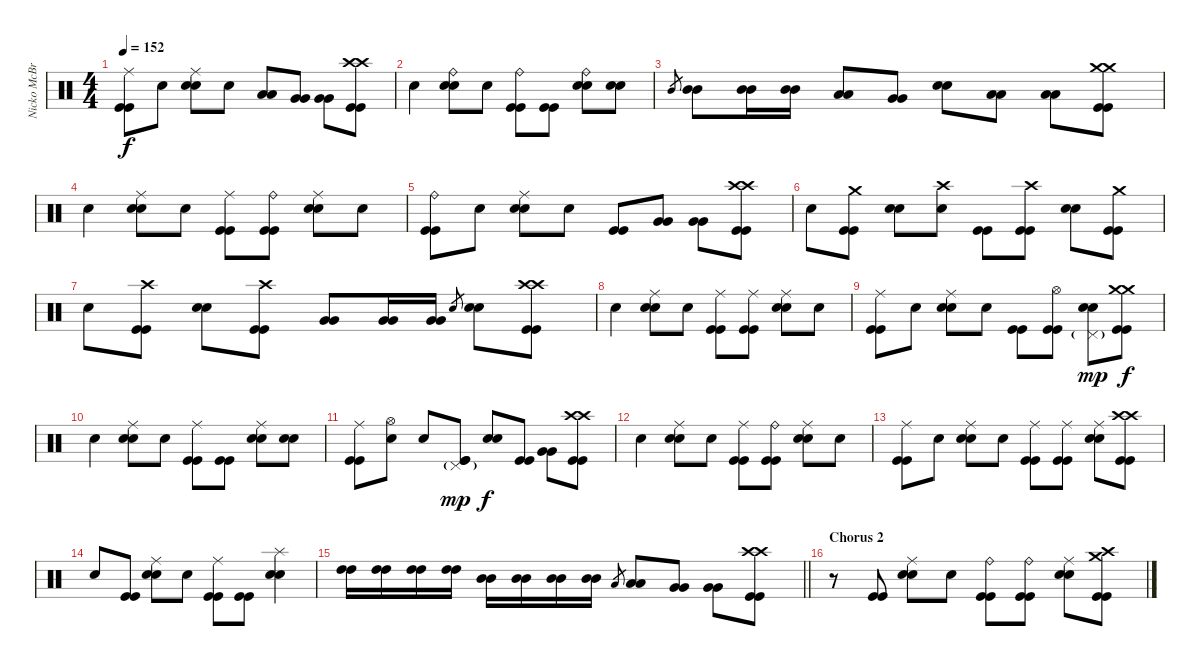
\track ("Nicko McBrain" "Nicko McBr") {instrument percussion}
\staff {score}
\articulation defaults
\ts (4 4)
\tempo 152
\clef neutral
\ks c
("Ride (middle)" "Kick (hit)" "Kick (hit)").8{dy f} "Snare (hit)".8 ("Ride (middle)" "Electric Snare (hit)" "Electric Snare (hit)").8 "Snare (hit)".8 ("Low Tom (hit)" "Low Tom (hit)").8 ("Very Low Tom (hit)" "Very Low Tom (hit)").8 ("Very Low Tom (hit)" "Very Low Tom (hit)").8 ("Crash high (hit)" "Crash high (hit)" "Kick (hit)" "Kick (hit)").8 |
"Snare (hit)".4 ("Ride (bell)" "Electric Snare (hit)" "Electric Snare (hit)").8 "Snare (hit)".8 ("Ride (bell)" "Kick (hit)" "Kick (hit)").8 ("Kick (hit)" "Kick (hit)").8 ("Ride (bell)" "Electric Snare (hit)" "Electric Snare (hit)").8 ("Snare (hit)" "Snare (hit)").8 |
"Mid Tom (hit)".8{gr} ("Mid Tom (hit)" "Mid Tom (hit)").8 ("Mid Tom (hit)" "Mid Tom (hit)").16 ("Mid Tom (hit)" "Mid Tom (hit)").16 ("Low Tom (hit)" "Low Tom (hit)").8 ("Very Low Tom (hit)" "Very Low Tom (hit)").8 ("Electric Snare (hit)" "Electric Snare (hit)").8 ("Low Floor Tom (hit)" "Low Floor Tom (hit)").8 ("Low Floor Tom (hit)" "Low Floor Tom (hit)").8 ("Crash medium (hit)" "Crash medium (hit)" "Kick (hit)" "Kick (hit)").8 |
"Snare (hit)".4 ("Ride (middle)" "Electric Snare (hit)" "Electric Snare (hit)").8 "Snare (hit)".8 ("Ride (middle)" "Kick (hit)" "Kick (hit)").8 ("Ride (bell)" "Kick (hit)" "Kick (hit)").8 ("Ride (middle)" "Electric Snare (hit)" "Electric Snare (hit)").8 "Snare (hit)".8 |
("Ride (bell)" "Kick (hit)" "Kick (hit)").8 "Snare (hit)".8 ("Ride (middle)" "Electric Snare (hit)" "Electric Snare (hit)").8 "Snare (hit)".8 ("Kick (hit)" "Kick (hit)").8 ("Very Low Tom (hit)" "Very Low Tom (hit)").8 ("Very Low Tom (hit)" "Very Low Tom (hit)").8 ("Crash high (hit)" "Crash high (hit)" "Kick (hit)" "Kick (hit)").8 |
"Snare (hit)".8 ("Crash medium (hit)" "Kick (hit)" "Kick (hit)").8 ("Electric Snare (hit)" "Electric Snare (hit)").8 ("Crash high (hit)" "Snare (hit)").8 ("Kick (hit)" "Kick (hit)").8 ("Crash high (hit)" "Kick (hit)" "Kick (hit)").8 ("Electric Snare (hit)" "Electric Snare (hit)").8 ("Crash medium (hit)" "Kick (hit)" "Kick (hit)").8 |
"Snare (hit)".8 ("Crash high (hit)" "Kick (hit)" "Kick (hit)").8 ("Electric Snare (hit)" "Electric Snare (hit)").8 ("Crash high (hit)" "Kick (hit)" "Kick (hit)").8 ("Very Low Tom (hit)" "Very Low Tom (hit)").8 ("Very Low Tom (hit)" "Very Low Tom (hit)").16 ("Very Low Tom (hit)" "Very Low Tom (hit)").16 "Electric Snare (hit)".8{gr} ("Electric Snare (hit)" "Electric Snare (hit)").8 ("Crash high (hit)" "Crash high (hit)" "Kick (hit)" "Kick (hit)").8 |
"Snare (hit)".4 ("Ride (middle)" "Electric Snare (hit)" "Electric Snare (hit)").8 "Snare (hit)".8 ("Ride (middle)" "Kick (hit)" "Kick (hit)").8 ("Ride (middle)" "Kick (hit)" "Kick (hit)").8 ("Ride (middle)" "Electric Snare (hit)" "Electric Snare (hit)").8 "Snare (hit)".8 |
("Ride (middle)" "Kick (hit)" "Kick (hit)").8 "Snare (hit)".8 ("Ride (middle)" "Electric Snare (hit)" "Electric Snare (hit)").8 "Snare (hit)".8 ("Kick (hit)" "Kick (hit)").8 ("Hi-Hat (open)" "Kick (hit)" "Kick (hit)").8 ("Pedal Hi-Hat (hit)"{g} "Electric Snare (hit)" "Electric Snare (hit)").8{dy mp} ("Crash medium (hit)" "Crash medium (hit)" "Kick (hit)" "Kick (hit)").8{dy f} |
"Snare (hit)".4 ("Ride (middle)" "Electric Snare (hit)" "Electric Snare (hit)").8 "Snare (hit)".8 ("Ride (middle)" "Kick (hit)" "Kick (hit)").8 ("Kick (hit)" "Kick (hit)").8 ("Ride (middle)" "Electric Snare (hit)" "Electric Snare (hit)").8 ("Snare (hit)" "Snare (hit)").8 |
("Ride (middle)" "Kick (hit)" "Kick (hit)").8 ("Hi-Hat (open)" "Snare (hit)").8 "Snare (hit)".8 ("Pedal Hi-Hat (hit)"{g} "Kick (hit)" "Kick (hit)").8{dy mp} ("Electric Snare (hit)" "Electric Snare (hit)").8{dy f} ("Kick (hit)" "Kick (hit)").8 ("Very Low Tom (hit)" "Very Low Tom (hit)").8 ("Crash high (hit)" "Crash high (hit)" "Kick (hit)" "Kick (hit)").8 |
"Snare (hit)".4 ("Ride (middle)" "Electric Snare (hit)" "Electric Snare (hit)").8 "Snare (hit)".8 ("Ride (middle)" "Kick (hit)" "Kick (hit)").8 ("Ride (bell)" "Kick (hit)" "Kick (hit)").8 ("Ride (middle)" "Electric Snare (hit)" "Electric Snare (hit)").8 "Snare (hit)".8 |
("Ride (middle)" "Kick (hit)" "Kick (hit)").8 "Snare (hit)".8 ("Ride (middle)" "Electric Snare (hit)" "Electric Snare (hit)").8 "Snare (hit)".8 ("Ride (middle)" "Kick (hit)" "Kick (hit)").8 ("Ride (middle)" "Kick (hit)" "Kick (hit)").8 ("Ride (middle)" "Electric Snare (hit)" "Electric Snare (hit)").8 ("Crash high (hit)" "Crash high (hit)" "Kick (hit)" "Kick (hit)").8 |
"Snare (hit)".8 ("Kick (hit)" "Kick (hit)").8 ("Ride (middle)" "Electric Snare (hit)" "Electric Snare (hit)").8 "Snare (hit)".8 ("Ride (middle)" "Kick (hit)" "Kick (hit)").8 ("Kick (hit)" "Kick (hit)").8 ("Splash (hit)" "Electric Snare (hit)" "Electric Snare (hit)").4 |
\barLineRight lightlight
("High Tom (hit)" "High Tom (hit)").16 ("High Tom (hit)" "High Tom (hit)").16 ("High Tom (hit)" "High Tom (hit)").16 ("High Tom (hit)" "High Tom (hit)").16 ("Mid Tom (hit)" "Mid Tom (hit)").16 ("Mid Tom (hit)" "Mid Tom (hit)").16 ("Mid Tom (hit)" "Mid Tom (hit)").16 ("Mid Tom (hit)" "Mid Tom (hit)").16 "Low Tom (hit)".8{gr} ("Low Tom (hit)" "Low Tom (hit)").8 ("Very Low Tom (hit)" "Very Low Tom (hit)").8 ("Very Low Tom (hit)" "Very Low Tom (hit)").8 ("Crash high (hit)" "Crash high (hit)" "Kick (hit)" "Kick (hit)").8 |
\section ("" "Chorus 2")
r.8 ("Kick (hit)" "Kick (hit)").8 ("Ride (middle)" "Electric Snare (hit)" "Electric Snare (hit)").8 "Snare (hit)".8 ("Ride (bell)" "Kick (hit)" "Kick (hit)").8 ("Ride (bell)" "Kick (hit)" "Kick (hit)").8 ("Ride (middle)" "Electric Snare (hit)" "Electric Snare (hit)").8 ("Crash high (hit)" "Crash medium (hit)" "Kick (hit)" "Kick (hit)").8
